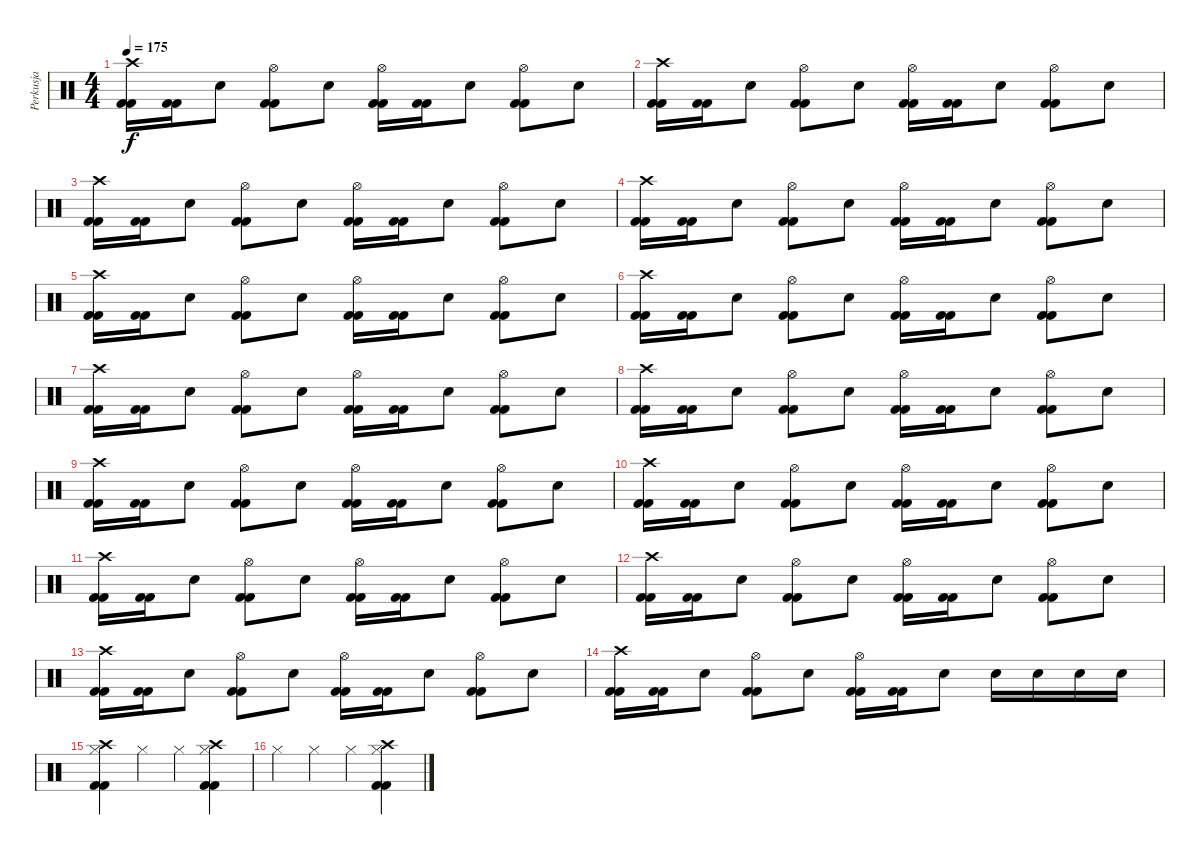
\track ("Perkusja" "Perkusja") {instrument percussion}
\staff {score}
\articulation defaults
\ts (4 4)
\tempo 175
\clef neutral
\ks c
("Crash high (hit)" "Kick (hit) 2" "Kick (hit) 2").16{dy f} ("Kick (hit) 2" "Kick (hit) 2").16 "Electric Snare (hit)".8 ("Hi-Hat (open)" "Kick (hit) 2" "Kick (hit) 2").8 "Electric Snare (hit)".8 ("Hi-Hat (open)" "Kick (hit) 2" "Kick (hit) 2").16 ("Kick (hit) 2" "Kick (hit) 2").16 "Electric Snare (hit)".8 ("Hi-Hat (open)" "Kick (hit) 2" "Kick (hit) 2").8 "Electric Snare (hit)".8 |
("Crash high (hit)" "Kick (hit) 2" "Kick (hit) 2").16 ("Kick (hit) 2" "Kick (hit) 2").16 "Electric Snare (hit)".8 ("Hi-Hat (open)" "Kick (hit) 2" "Kick (hit) 2").8 "Electric Snare (hit)".8 ("Hi-Hat (open)" "Kick (hit) 2" "Kick (hit) 2").16 ("Kick (hit) 2" "Kick (hit) 2").16 "Electric Snare (hit)".8 ("Hi-Hat (open)" "Kick (hit) 2" "Kick (hit) 2").8 "Electric Snare (hit)".8 |
("Crash high (hit)" "Kick (hit) 2" "Kick (hit) 2").16 ("Kick (hit) 2" "Kick (hit) 2").16 "Electric Snare (hit)".8 ("Hi-Hat (open)" "Kick (hit) 2" "Kick (hit) 2").8 "Electric Snare (hit)".8 ("Hi-Hat (open)" "Kick (hit) 2" "Kick (hit) 2").16 ("Kick (hit) 2" "Kick (hit) 2").16 "Electric Snare (hit)".8 ("Hi-Hat (open)" "Kick (hit) 2" "Kick (hit) 2").8 "Electric Snare (hit)".8 |
("Crash high (hit)" "Kick (hit) 2" "Kick (hit) 2").16 ("Kick (hit) 2" "Kick (hit) 2").16 "Electric Snare (hit)".8 ("Hi-Hat (open)" "Kick (hit) 2" "Kick (hit) 2").8 "Electric Snare (hit)".8 ("Hi-Hat (open)" "Kick (hit) 2" "Kick (hit) 2").16 ("Kick (hit) 2" "Kick (hit) 2").16 "Electric Snare (hit)".8 ("Hi-Hat (open)" "Kick (hit) 2" "Kick (hit) 2").8 "Electric Snare (hit)".8 |
("Crash high (hit)" "Kick (hit) 2" "Kick (hit) 2").16 ("Kick (hit) 2" "Kick (hit) 2").16 "Electric Snare (hit)".8 ("Hi-Hat (open)" "Kick (hit) 2" "Kick (hit) 2").8 "Electric Snare (hit)".8 ("Hi-Hat (open)" "Kick (hit) 2" "Kick (hit) 2").16 ("Kick (hit) 2" "Kick (hit) 2").16 "Electric Snare (hit)".8 ("Hi-Hat (open)" "Kick (hit) 2" "Kick (hit) 2").8 "Electric Snare (hit)".8 |
("Crash high (hit)" "Kick (hit) 2" "Kick (hit) 2").16 ("Kick (hit) 2" "Kick (hit) 2").16 "Electric Snare (hit)".8 ("Hi-Hat (open)" "Kick (hit) 2" "Kick (hit) 2").8 "Electric Snare (hit)".8 ("Hi-Hat (open)" "Kick (hit) 2" "Kick (hit) 2").16 ("Kick (hit) 2" "Kick (hit) 2").16 "Electric Snare (hit)".8 ("Hi-Hat (open)" "Kick (hit) 2" "Kick (hit) 2").8 "Electric Snare (hit)".8 |
("Crash high (hit)" "Kick (hit) 2" "Kick (hit) 2").16 ("Kick (hit) 2" "Kick (hit) 2").16 "Electric Snare (hit)".8 ("Hi-Hat (open)" "Kick (hit) 2" "Kick (hit) 2").8 "Electric Snare (hit)".8 ("Hi-Hat (open)" "Kick (hit) 2" "Kick (hit) 2").16 ("Kick (hit) 2" "Kick (hit) 2").16 "Electric Snare (hit)".8 ("Hi-Hat (open)" "Kick (hit) 2" "Kick (hit) 2").8 "Electric Snare (hit)".8 |
("Crash high (hit)" "Kick (hit) 2" "Kick (hit) 2").16 ("Kick (hit) 2" "Kick (hit) 2").16 "Electric Snare (hit)".8 ("Hi-Hat (open)" "Kick (hit) 2" "Kick (hit) 2").8 "Electric Snare (hit)".8 ("Hi-Hat (open)" "Kick (hit) 2" "Kick (hit) 2").16 ("Kick (hit) 2" "Kick (hit) 2").16 "Electric Snare (hit)".8 ("Hi-Hat (open)" "Kick (hit) 2" "Kick (hit) 2").8 "Electric Snare (hit)".8 |
("Crash high (hit)" "Kick (hit) 2" "Kick (hit) 2").16 ("Kick (hit) 2" "Kick (hit) 2").16 "Electric Snare (hit)".8 ("Hi-Hat (open)" "Kick (hit) 2" "Kick (hit) 2").8 "Electric Snare (hit)".8 ("Hi-Hat (open)" "Kick (hit) 2" "Kick (hit) 2").16 ("Kick (hit) 2" "Kick (hit) 2").16 "Electric Snare (hit)".8 ("Hi-Hat (open)" "Kick (hit) 2" "Kick (hit) 2").8 "Electric Snare (hit)".8 |
("Crash high (hit)" "Kick (hit) 2" "Kick (hit) 2").16 ("Kick (hit) 2" "Kick (hit) 2").16 "Electric Snare (hit)".8 ("Hi-Hat (open)" "Kick (hit) 2" "Kick (hit) 2").8 "Electric Snare (hit)".8 ("Hi-Hat (open)" "Kick (hit) 2" "Kick (hit) 2").16 ("Kick (hit) 2" "Kick (hit) 2").16 "Electric Snare (hit)".8 ("Hi-Hat (open)" "Kick (hit) 2" "Kick (hit) 2").8 "Electric Snare (hit)".8 |
("Crash high (hit)" "Kick (hit) 2" "Kick (hit) 2").16 ("Kick (hit) 2" "Kick (hit) 2").16 "Electric Snare (hit)".8 ("Hi-Hat (open)" "Kick (hit) 2" "Kick (hit) 2").8 "Electric Snare (hit)".8 ("Hi-Hat (open)" "Kick (hit) 2" "Kick (hit) 2").16 ("Kick (hit) 2" "Kick (hit) 2").16 "Electric Snare (hit)".8 ("Hi-Hat (open)" "Kick (hit) 2" "Kick (hit) 2").8 "Electric Snare (hit)".8 |
("Crash high (hit)" "Kick (hit) 2" "Kick (hit) 2").16 ("Kick (hit) 2" "Kick (hit) 2").16 "Electric Snare (hit)".8 ("Hi-Hat (open)" "Kick (hit) 2" "Kick (hit) 2").8 "Electric Snare (hit)".8 ("Hi-Hat (open)" "Kick (hit) 2" "Kick (hit) 2").16 ("Kick (hit) 2" "Kick (hit) 2").16 "Electric Snare (hit)".8 ("Hi-Hat (open)" "Kick (hit) 2" "Kick (hit) 2").8 "Electric Snare (hit)".8 |
("Crash high (hit)" "Kick (hit) 2" "Kick (hit) 2").16 ("Kick (hit) 2" "Kick (hit) 2").16 "Electric Snare (hit)".8 ("Hi-Hat (open)" "Kick (hit) 2" "Kick (hit) 2").8 "Electric Snare (hit)".8 ("Hi-Hat (open)" "Kick (hit) 2" "Kick (hit) 2").16 ("Kick (hit) 2" "Kick (hit) 2").16 "Electric Snare (hit)".8 ("Hi-Hat (open)" "Kick (hit) 2" "Kick (hit) 2").8 "Electric Snare (hit)".8 |
("Crash high (hit)" "Kick (hit) 2" "Kick (hit) 2").16 ("Kick (hit) 2" "Kick (hit) 2").16 "Electric Snare (hit)".8 ("Hi-Hat (open)" "Kick (hit) 2" "Kick (hit) 2").8 "Electric Snare (hit)".8 ("Hi-Hat (open)" "Kick (hit) 2" "Kick (hit) 2").16 ("Kick (hit) 2" "Kick (hit) 2").16 "Electric Snare (hit)".8 "Electric Snare (hit)".16 "Electric Snare (hit)".16 "Electric Snare (hit)".16 "Electric Snare (hit)".16 |
("Crash high (hit)" "Hi-Hat (closed)" "Kick (hit) 2" "Kick (hit) 2").4 "Hi-Hat (closed)".4 "Hi-Hat (closed)".4 ("Crash high (hit)" "Hi-Hat (closed)" "Kick (hit) 2" "Kick (hit) 2").4 |
"Hi-Hat (closed)".4 "Hi-Hat (closed)".4 "Hi-Hat (closed)".4 ("Crash high (hit)" "Hi-Hat (closed)" "Kick (hit) 2" "Kick (hit) 2").4
